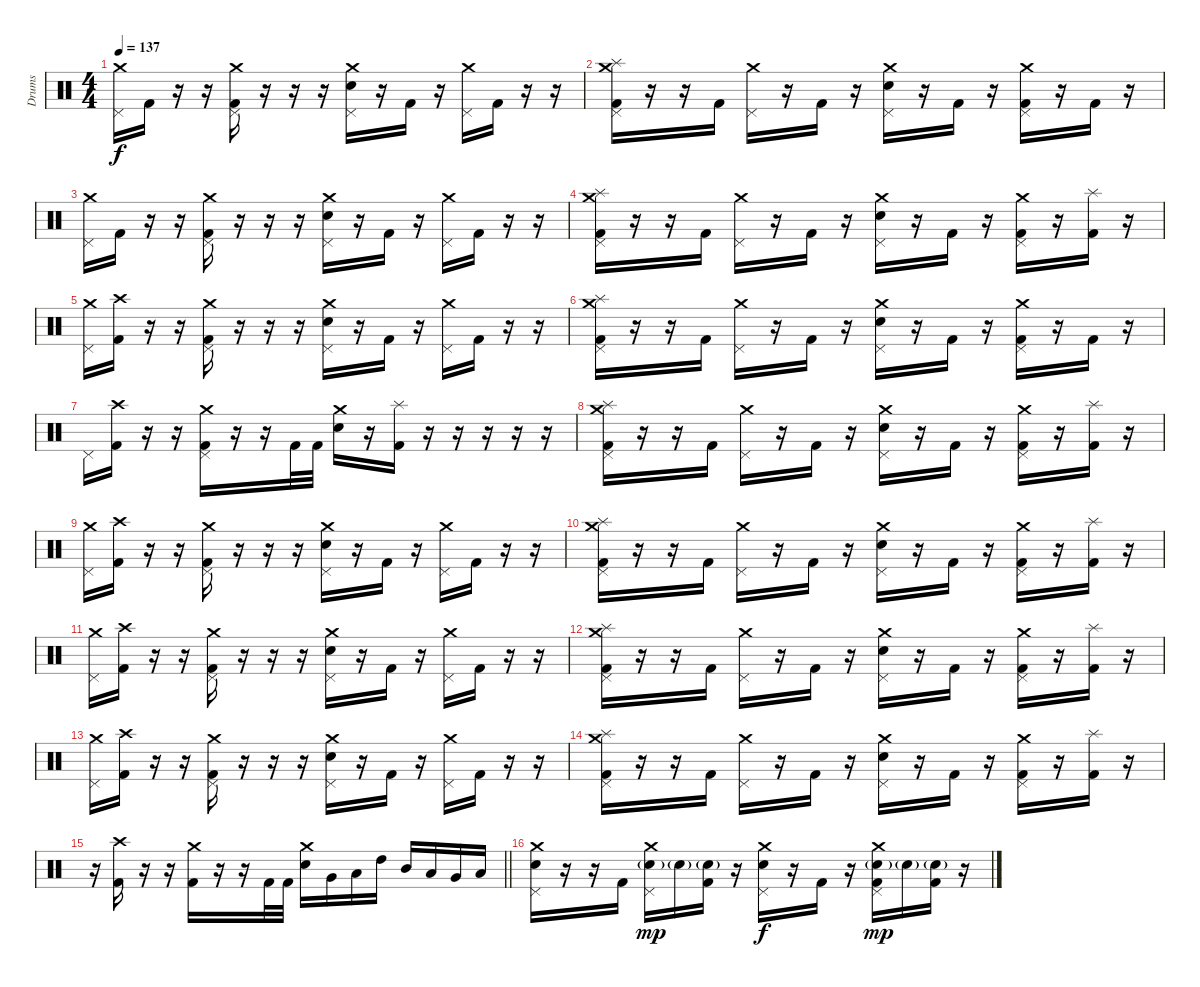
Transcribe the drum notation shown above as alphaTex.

\track ("Drums" "Drums") {instrument percussion}
\staff {score}
\articulation defaults
\ts (4 4)
\tempo 137
\clef neutral
\ks c
("Crash medium (hit)" "Pedal Hi-Hat (hit)").16{dy f} "Kick (hit) 2".16 r.16 r.16 ("Crash medium (hit)" "Pedal Hi-Hat (hit)" "Kick (hit) 2").16 r.16 r.16 r.16 ("Crash medium (hit)" "Pedal Hi-Hat (hit)" "Electric Snare (hit)").16 r.16 "Kick (hit) 2".16 r.16 ("Crash medium (hit)" "Pedal Hi-Hat (hit)").16 "Kick (hit) 2".16 r.16 r.16 |
("Splash (hit)" "Crash medium (hit)" "Pedal Hi-Hat (hit)" "Kick (hit) 2").16 r.16 r.16 "Kick (hit) 2".16 ("Crash medium (hit)" "Pedal Hi-Hat (hit)").16 r.16 "Kick (hit) 2".16 r.16 ("Crash medium (hit)" "Pedal Hi-Hat (hit)" "Electric Snare (hit)").16 r.16 "Kick (hit) 2".16 r.16 ("Crash medium (hit)" "Pedal Hi-Hat (hit)" "Kick (hit) 2").16 r.16 "Kick (hit) 2".16 r.16 |
("Crash medium (hit)" "Pedal Hi-Hat (hit)").16 "Kick (hit) 2".16 r.16 r.16 ("Crash medium (hit)" "Pedal Hi-Hat (hit)" "Kick (hit) 2").16 r.16 r.16 r.16 ("Crash medium (hit)" "Pedal Hi-Hat (hit)" "Electric Snare (hit)").16 r.16 "Kick (hit) 2".16 r.16 ("Crash medium (hit)" "Pedal Hi-Hat (hit)").16 "Kick (hit) 2".16 r.16 r.16 |
("Splash (hit)" "Crash medium (hit)" "Pedal Hi-Hat (hit)" "Kick (hit) 2").16 r.16 r.16 "Kick (hit) 2".16 ("Crash medium (hit)" "Pedal Hi-Hat (hit)").16 r.16 "Kick (hit) 2".16 r.16 ("Crash medium (hit)" "Pedal Hi-Hat (hit)" "Electric Snare (hit)").16 r.16 "Kick (hit) 2".16 r.16 ("Crash medium (hit)" "Pedal Hi-Hat (hit)" "Kick (hit) 2").16 r.16 ("Splash (hit)" "Kick (hit) 2").16 r.16 |
("Crash medium (hit)" "Pedal Hi-Hat (hit)").16 ("Crash high (hit)" "Kick (hit) 2").16 r.16 r.16 ("Crash medium (hit)" "Pedal Hi-Hat (hit)" "Kick (hit) 2").16 r.16 r.16 r.16 ("Crash medium (hit)" "Pedal Hi-Hat (hit)" "Electric Snare (hit)").16 r.16 "Kick (hit) 2".16 r.16 ("Crash medium (hit)" "Pedal Hi-Hat (hit)").16 "Kick (hit) 2".16 r.16 r.16 |
("Splash (hit)" "Crash medium (hit)" "Pedal Hi-Hat (hit)" "Kick (hit) 2").16 r.16 r.16 "Kick (hit) 2".16 ("Crash medium (hit)" "Pedal Hi-Hat (hit)").16 r.16 "Kick (hit) 2".16 r.16 ("Crash medium (hit)" "Pedal Hi-Hat (hit)" "Electric Snare (hit)").16 r.16 "Kick (hit) 2".16 r.16 ("Crash medium (hit)" "Pedal Hi-Hat (hit)" "Kick (hit) 2").16 r.16 "Kick (hit) 2".16 r.16 |
"Pedal Hi-Hat (hit)".16 ("Crash high (hit)" "Kick (hit) 2").16 r.16 r.16 ("Crash medium (hit)" "Pedal Hi-Hat (hit)" "Kick (hit) 2").16 r.16 r.16 "Kick (hit) 2".32 "Kick (hit) 2".32 ("Crash medium (hit)" "Electric Snare (hit)").16 r.16 ("Splash (hit)" "Kick (hit) 2").16 r.16 r.16 r.16 r.16 r.16 |
("Splash (hit)" "Crash medium (hit)" "Pedal Hi-Hat (hit)" "Kick (hit) 2").16 r.16 r.16 "Kick (hit) 2".16 ("Crash medium (hit)" "Pedal Hi-Hat (hit)").16 r.16 "Kick (hit) 2".16 r.16 ("Crash medium (hit)" "Pedal Hi-Hat (hit)" "Electric Snare (hit)").16 r.16 "Kick (hit) 2".16 r.16 ("Crash medium (hit)" "Pedal Hi-Hat (hit)" "Kick (hit) 2").16 r.16 ("Splash (hit)" "Kick (hit) 2").16 r.16 |
("Crash medium (hit)" "Pedal Hi-Hat (hit)").16 ("Crash high (hit)" "Kick (hit) 2").16 r.16 r.16 ("Crash medium (hit)" "Pedal Hi-Hat (hit)" "Kick (hit) 2").16 r.16 r.16 r.16 ("Crash medium (hit)" "Pedal Hi-Hat (hit)" "Electric Snare (hit)").16 r.16 "Kick (hit) 2".16 r.16 ("Crash medium (hit)" "Pedal Hi-Hat (hit)").16 "Kick (hit) 2".16 r.16 r.16 |
("Splash (hit)" "Crash medium (hit)" "Pedal Hi-Hat (hit)" "Kick (hit) 2").16 r.16 r.16 "Kick (hit) 2".16 ("Crash medium (hit)" "Pedal Hi-Hat (hit)").16 r.16 "Kick (hit) 2".16 r.16 ("Crash medium (hit)" "Pedal Hi-Hat (hit)" "Electric Snare (hit)").16 r.16 "Kick (hit) 2".16 r.16 ("Crash medium (hit)" "Pedal Hi-Hat (hit)" "Kick (hit) 2").16 r.16 ("Splash (hit)" "Kick (hit) 2").16 r.16 |
("Crash medium (hit)" "Pedal Hi-Hat (hit)").16 ("Crash high (hit)" "Kick (hit) 2").16 r.16 r.16 ("Crash medium (hit)" "Pedal Hi-Hat (hit)" "Kick (hit) 2").16 r.16 r.16 r.16 ("Crash medium (hit)" "Pedal Hi-Hat (hit)" "Electric Snare (hit)").16 r.16 "Kick (hit) 2".16 r.16 ("Crash medium (hit)" "Pedal Hi-Hat (hit)").16 "Kick (hit) 2".16 r.16 r.16 |
("Splash (hit)" "Crash medium (hit)" "Pedal Hi-Hat (hit)" "Kick (hit) 2").16 r.16 r.16 "Kick (hit) 2".16 ("Crash medium (hit)" "Pedal Hi-Hat (hit)").16 r.16 "Kick (hit) 2".16 r.16 ("Crash medium (hit)" "Pedal Hi-Hat (hit)" "Electric Snare (hit)").16 r.16 "Kick (hit) 2".16 r.16 ("Crash medium (hit)" "Pedal Hi-Hat (hit)" "Kick (hit) 2").16 r.16 ("Splash (hit)" "Kick (hit) 2").16 r.16 |
("Crash medium (hit)" "Pedal Hi-Hat (hit)").16 ("Crash high (hit)" "Kick (hit) 2").16 r.16 r.16 ("Crash medium (hit)" "Pedal Hi-Hat (hit)" "Kick (hit) 2").16 r.16 r.16 r.16 ("Crash medium (hit)" "Pedal Hi-Hat (hit)" "Electric Snare (hit)").16 r.16 "Kick (hit) 2".16 r.16 ("Crash medium (hit)" "Pedal Hi-Hat (hit)").16 "Kick (hit) 2".16 r.16 r.16 |
("Splash (hit)" "Crash medium (hit)" "Pedal Hi-Hat (hit)" "Kick (hit) 2").16 r.16 r.16 "Kick (hit) 2".16 ("Crash medium (hit)" "Pedal Hi-Hat (hit)").16 r.16 "Kick (hit) 2".16 r.16 ("Crash medium (hit)" "Pedal Hi-Hat (hit)" "Electric Snare (hit)").16 r.16 "Kick (hit) 2".16 r.16 ("Crash medium (hit)" "Pedal Hi-Hat (hit)" "Kick (hit) 2").16 r.16 ("Splash (hit)" "Kick (hit) 2").16 r.16 |
\barLineRight lightlight
r.16 ("Crash high (hit)" "Kick (hit) 2").16 r.16 r.16 ("Crash medium (hit)" "Kick (hit) 2").16 r.16 r.16 "Kick (hit) 2".32 "Kick (hit) 2".32 ("Crash medium (hit)" "Electric Snare (hit)").16 "Very Low Tom (hit)".16 "Low Tom (hit)".16 "High Tom (hit)".16 "Mid Tom (hit)".16 "Low Tom (hit)".16 "Very Low Tom (hit)".16 "Low Floor Tom (hit)".16 |
\section ("" "")
("Crash medium (hit)" "Pedal Hi-Hat (hit)" "Electric Snare (hit)").16 r.16 r.16 "Kick (hit) 2".16 ("Crash medium (hit)" "Pedal Hi-Hat (hit)" "Electric Snare (hit)"{g}).16{dy mp} "Electric Snare (hit)"{g}.16 ("Electric Snare (hit)"{g} "Kick (hit) 2").16 r.16 ("Crash medium (hit)" "Pedal Hi-Hat (hit)" "Electric Snare (hit)").16{dy f} r.16 "Kick (hit) 2".16 r.16 ("Crash medium (hit)" "Pedal Hi-Hat (hit)" "Electric Snare (hit)"{g} "Kick (hit) 2").16{dy mp} "Electric Snare (hit)"{g}.16 ("Electric Snare (hit)"{g} "Kick (hit) 2").16 r.16
